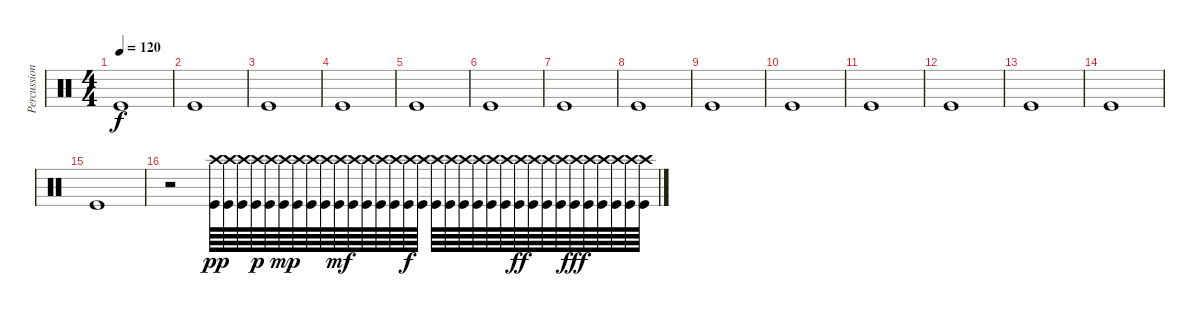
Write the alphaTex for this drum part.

\track ("Percussion" "Percussion") {instrument percussion}
\staff {score}
\articulation defaults
\ts (4 4)
\tempo 120
\clef neutral
\ks c "Kick (hit)".1{dy f}
|
"Kick (hit)".1 |
"Kick (hit)".1 |
"Kick (hit)".1 |
"Kick (hit)".1 |
"Kick (hit)".1 |
"Kick (hit)".1 |
"Kick (hit)".1 |
"Kick (hit)".1 |
"Kick (hit)".1 |
"Kick (hit)".1 |
"Kick (hit)".1 |
"Kick (hit)".1 |
"Kick (hit)".1 |
"Kick (hit)".1 |
r.2 ("Crash high (hit)" "Kick (hit)").64{dy pp} ("Crash high (hit)" "Kick (hit)").64 ("Crash high (hit)" "Kick (hit)").64 ("Crash high (hit)" "Kick (hit)").64{dy p} ("Crash high (hit)" "Kick (hit)").64 ("Crash high (hit)" "Kick (hit)").64{dy mp} ("Crash high (hit)" "Kick (hit)").64 ("Crash high (hit)" "Kick (hit)").64 ("Crash high (hit)" "Kick (hit)").64 ("Crash high (hit)" "Kick (hit)").64{dy mf} ("Crash high (hit)" "Kick (hit)").64 ("Crash high (hit)" "Kick (hit)").64 ("Crash high (hit)" "Kick (hit)").64 ("Crash high (hit)" "Kick (hit)").64 ("Crash high (hit)" "Kick (hit)").64{dy f} ("Crash high (hit)" "Kick (hit)").64 ("Crash high (hit)" "Kick (hit)").64 ("Crash high (hit)" "Kick (hit)").64 ("Crash high (hit)" "Kick (hit)").64 ("Crash high (hit)" "Kick (hit)").64 ("Crash high (hit)" "Kick (hit)").64 ("Crash high (hit)" "Kick (hit)").64 ("Crash high (hit)" "Kick (hit)").64{dy ff} ("Crash high (hit)" "Kick (hit)").64 ("Crash high (hit)" "Kick (hit)").64 ("Crash high (hit)" "Kick (hit)").64 ("Crash high (hit)" "Kick (hit)").64{dy fff} ("Crash high (hit)" "Kick (hit)").64 ("Crash high (hit)" "Kick (hit)").64 ("Crash high (hit)" "Kick (hit)").64 ("Crash high (hit)" "Kick (hit)").64 ("Crash high (hit)" "Kick (hit)").64
